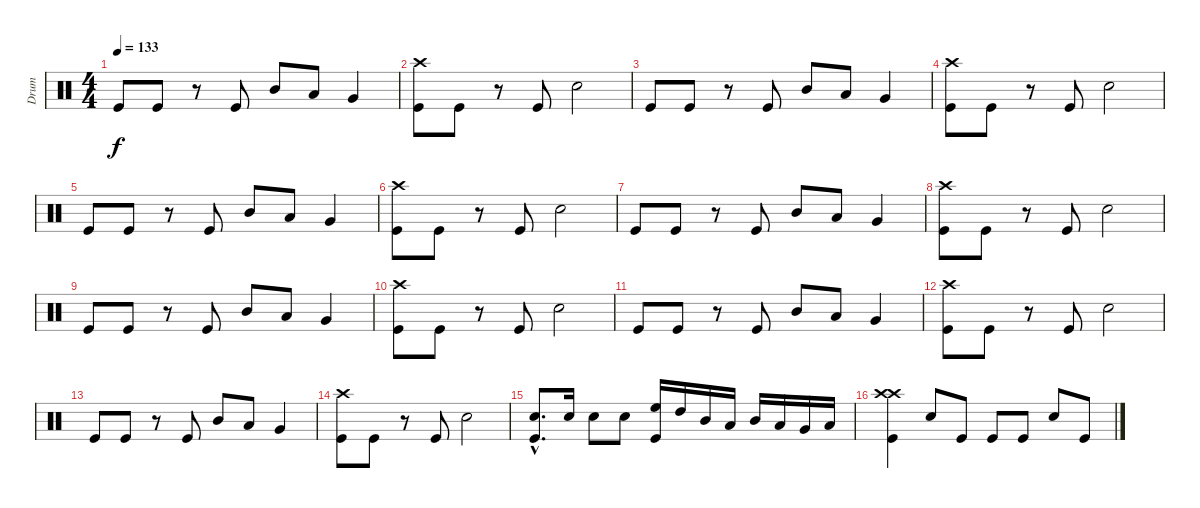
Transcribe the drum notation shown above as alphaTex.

\track ("Drum" "Drum") {instrument percussion}
\staff {score}
\articulation defaults
\ts (4 4)
\tempo 133
\clef neutral
\ks c "Kick (hit)".8{dy f} "Kick (hit)".8
r.8 "Kick (hit)".8 "Mid Tom (hit)".8 "Low Tom (hit)".8 "Very Low Tom (hit)".4 |
("Crash high (hit)" "Kick (hit)").8 "Kick (hit)".8 r.8 "Kick (hit)".8 "Snare (hit) 2".2 |
"Kick (hit)".8 "Kick (hit)".8 r.8 "Kick (hit)".8 "Mid Tom (hit)".8 "Low Tom (hit)".8 "Very Low Tom (hit)".4 |
("Crash high (hit)" "Kick (hit)").8 "Kick (hit)".8 r.8 "Kick (hit)".8 "Snare (hit) 2".2 |
"Kick (hit)".8 "Kick (hit)".8 r.8 "Kick (hit)".8 "Mid Tom (hit)".8 "Low Tom (hit)".8 "Very Low Tom (hit)".4 |
("Crash high (hit)" "Kick (hit)").8 "Kick (hit)".8 r.8 "Kick (hit)".8 "Snare (hit) 2".2 |
"Kick (hit)".8 "Kick (hit)".8 r.8 "Kick (hit)".8 "Mid Tom (hit)".8 "Low Tom (hit)".8 "Very Low Tom (hit)".4 |
("Crash high (hit)" "Kick (hit)").8 "Kick (hit)".8 r.8 "Kick (hit)".8 "Snare (hit) 2".2 |
"Kick (hit)".8 "Kick (hit)".8 r.8 "Kick (hit)".8 "Mid Tom (hit)".8 "Low Tom (hit)".8 "Very Low Tom (hit)".4 |
("Crash high (hit)" "Kick (hit)").8 "Kick (hit)".8 r.8 "Kick (hit)".8 "Snare (hit) 2".2 |
"Kick (hit)".8 "Kick (hit)".8 r.8 "Kick (hit)".8 "Mid Tom (hit)".8 "Low Tom (hit)".8 "Very Low Tom (hit)".4 |
("Crash high (hit)" "Kick (hit)").8 "Kick (hit)".8 r.8 "Kick (hit)".8 "Snare (hit) 2".2 |
"Kick (hit)".8 "Kick (hit)".8 r.8 "Kick (hit)".8 "Mid Tom (hit)".8 "Low Tom (hit)".8 "Very Low Tom (hit)".4 |
("Crash high (hit)" "Kick (hit)").8 "Kick (hit)".8 r.8 "Kick (hit)".8 "Snare (hit) 2".2 |
("Snare (hit) 2"{hac} "Kick (hit)"{hac}).8{d} "Snare (hit) 2".16 "Snare (hit) 2".8 "Snare (hit) 2".8 ("High Floor Tom (hit)" "Kick (hit)").16 "High Tom (hit)".16 "Mid Tom (hit)".16 "Low Tom (hit)".16 "Mid Tom (hit)".16 "Low Tom (hit)".16 "Very Low Tom (hit)".16 "Low Floor Tom (hit)".16 |
("Crash high (hit)" "Crash high (hit)" "Kick (hit)").4 "Snare (hit) 2".8 "Kick (hit)".8 "Kick (hit)".8 "Kick (hit)".8 "Snare (hit) 2".8 "Kick (hit)".8
